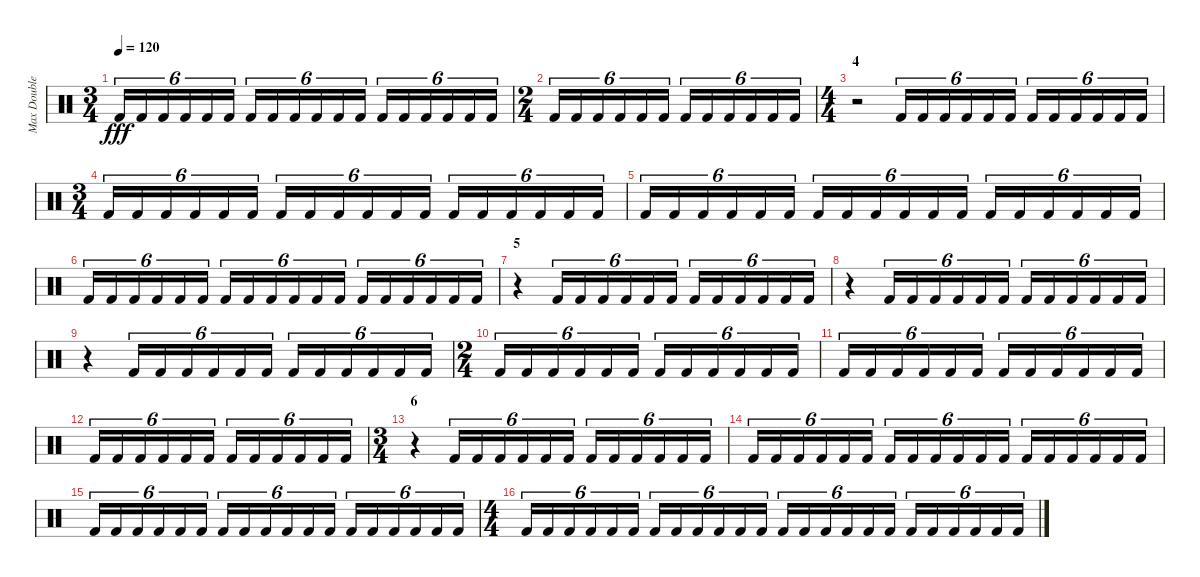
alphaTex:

\track ("Max Double Pedal" "Max Double") {instrument percussion}
\staff {score}
\articulation defaults
\ts (3 4)
\tempo 120
\clef neutral
\ks c "Kick (hit) 2".16{tu (6 4) dy fff} "Kick (hit) 2".16{tu (6 4)} "Kick (hit) 2".16{tu (6 4)} "Kick (hit) 2".16{tu (6 4)} "Kick (hit) 2".16{tu (6 4)} "Kick (hit) 2".16{tu (6 4)} "Kick (hit) 2".16{tu (6 4)} "Kick (hit) 2".16{tu (6 4)} "Kick (hit) 2".16{tu (6 4)} "Kick (hit) 2".16{tu (6 4)} "Kick (hit) 2".16{tu (6 4)} "Kick (hit) 2".16{tu (6 4)} "Kick (hit) 2".16{tu (6 4)} "Kick (hit) 2".16{tu (6 4)} "Kick (hit) 2".16{tu (6 4)} "Kick (hit) 2".16{tu (6 4)} "Kick (hit) 2".16{tu (6 4)} "Kick (hit) 2".16{tu (6 4)}
|
\ts (2 4)
"Kick (hit) 2".16{tu (6 4)} "Kick (hit) 2".16{tu (6 4)} "Kick (hit) 2".16{tu (6 4)} "Kick (hit) 2".16{tu (6 4)} "Kick (hit) 2".16{tu (6 4)} "Kick (hit) 2".16{tu (6 4)} "Kick (hit) 2".16{tu (6 4)} "Kick (hit) 2".16{tu (6 4)} "Kick (hit) 2".16{tu (6 4)} "Kick (hit) 2".16{tu (6 4)} "Kick (hit) 2".16{tu (6 4)} "Kick (hit) 2".16{tu (6 4)} |
\ts (4 4)
\section ("" "4")
r.2 "Kick (hit) 2".16{tu (6 4)} "Kick (hit) 2".16{tu (6 4)} "Kick (hit) 2".16{tu (6 4)} "Kick (hit) 2".16{tu (6 4)} "Kick (hit) 2".16{tu (6 4)} "Kick (hit) 2".16{tu (6 4)} "Kick (hit) 2".16{tu (6 4)} "Kick (hit) 2".16{tu (6 4)} "Kick (hit) 2".16{tu (6 4)} "Kick (hit) 2".16{tu (6 4)} "Kick (hit) 2".16{tu (6 4)} "Kick (hit) 2".16{tu (6 4)} |
\ts (3 4)
"Kick (hit) 2".16{tu (6 4)} "Kick (hit) 2".16{tu (6 4)} "Kick (hit) 2".16{tu (6 4)} "Kick (hit) 2".16{tu (6 4)} "Kick (hit) 2".16{tu (6 4)} "Kick (hit) 2".16{tu (6 4)} "Kick (hit) 2".16{tu (6 4)} "Kick (hit) 2".16{tu (6 4)} "Kick (hit) 2".16{tu (6 4)} "Kick (hit) 2".16{tu (6 4)} "Kick (hit) 2".16{tu (6 4)} "Kick (hit) 2".16{tu (6 4)} "Kick (hit) 2".16{tu (6 4)} "Kick (hit) 2".16{tu (6 4)} "Kick (hit) 2".16{tu (6 4)} "Kick (hit) 2".16{tu (6 4)} "Kick (hit) 2".16{tu (6 4)} "Kick (hit) 2".16{tu (6 4)} |
"Kick (hit) 2".16{tu (6 4)} "Kick (hit) 2".16{tu (6 4)} "Kick (hit) 2".16{tu (6 4)} "Kick (hit) 2".16{tu (6 4)} "Kick (hit) 2".16{tu (6 4)} "Kick (hit) 2".16{tu (6 4)} "Kick (hit) 2".16{tu (6 4)} "Kick (hit) 2".16{tu (6 4)} "Kick (hit) 2".16{tu (6 4)} "Kick (hit) 2".16{tu (6 4)} "Kick (hit) 2".16{tu (6 4)} "Kick (hit) 2".16{tu (6 4)} "Kick (hit) 2".16{tu (6 4)} "Kick (hit) 2".16{tu (6 4)} "Kick (hit) 2".16{tu (6 4)} "Kick (hit) 2".16{tu (6 4)} "Kick (hit) 2".16{tu (6 4)} "Kick (hit) 2".16{tu (6 4)} |
"Kick (hit) 2".16{tu (6 4)} "Kick (hit) 2".16{tu (6 4)} "Kick (hit) 2".16{tu (6 4)} "Kick (hit) 2".16{tu (6 4)} "Kick (hit) 2".16{tu (6 4)} "Kick (hit) 2".16{tu (6 4)} "Kick (hit) 2".16{tu (6 4)} "Kick (hit) 2".16{tu (6 4)} "Kick (hit) 2".16{tu (6 4)} "Kick (hit) 2".16{tu (6 4)} "Kick (hit) 2".16{tu (6 4)} "Kick (hit) 2".16{tu (6 4)} "Kick (hit) 2".16{tu (6 4)} "Kick (hit) 2".16{tu (6 4)} "Kick (hit) 2".16{tu (6 4)} "Kick (hit) 2".16{tu (6 4)} "Kick (hit) 2".16{tu (6 4)} "Kick (hit) 2".16{tu (6 4)} |
\section ("" "5")
r.4 "Kick (hit) 2".16{tu (6 4)} "Kick (hit) 2".16{tu (6 4)} "Kick (hit) 2".16{tu (6 4)} "Kick (hit) 2".16{tu (6 4)} "Kick (hit) 2".16{tu (6 4)} "Kick (hit) 2".16{tu (6 4)} "Kick (hit) 2".16{tu (6 4)} "Kick (hit) 2".16{tu (6 4)} "Kick (hit) 2".16{tu (6 4)} "Kick (hit) 2".16{tu (6 4)} "Kick (hit) 2".16{tu (6 4)} "Kick (hit) 2".16{tu (6 4)} |
r.4 "Kick (hit) 2".16{tu (6 4)} "Kick (hit) 2".16{tu (6 4)} "Kick (hit) 2".16{tu (6 4)} "Kick (hit) 2".16{tu (6 4)} "Kick (hit) 2".16{tu (6 4)} "Kick (hit) 2".16{tu (6 4)} "Kick (hit) 2".16{tu (6 4)} "Kick (hit) 2".16{tu (6 4)} "Kick (hit) 2".16{tu (6 4)} "Kick (hit) 2".16{tu (6 4)} "Kick (hit) 2".16{tu (6 4)} "Kick (hit) 2".16{tu (6 4)} |
r.4 "Kick (hit) 2".16{tu (6 4)} "Kick (hit) 2".16{tu (6 4)} "Kick (hit) 2".16{tu (6 4)} "Kick (hit) 2".16{tu (6 4)} "Kick (hit) 2".16{tu (6 4)} "Kick (hit) 2".16{tu (6 4)} "Kick (hit) 2".16{tu (6 4)} "Kick (hit) 2".16{tu (6 4)} "Kick (hit) 2".16{tu (6 4)} "Kick (hit) 2".16{tu (6 4)} "Kick (hit) 2".16{tu (6 4)} "Kick (hit) 2".16{tu (6 4)} |
\ts (2 4)
"Kick (hit) 2".16{tu (6 4)} "Kick (hit) 2".16{tu (6 4)} "Kick (hit) 2".16{tu (6 4)} "Kick (hit) 2".16{tu (6 4)} "Kick (hit) 2".16{tu (6 4)} "Kick (hit) 2".16{tu (6 4)} "Kick (hit) 2".16{tu (6 4)} "Kick (hit) 2".16{tu (6 4)} "Kick (hit) 2".16{tu (6 4)} "Kick (hit) 2".16{tu (6 4)} "Kick (hit) 2".16{tu (6 4)} "Kick (hit) 2".16{tu (6 4)} |
"Kick (hit) 2".16{tu (6 4)} "Kick (hit) 2".16{tu (6 4)} "Kick (hit) 2".16{tu (6 4)} "Kick (hit) 2".16{tu (6 4)} "Kick (hit) 2".16{tu (6 4)} "Kick (hit) 2".16{tu (6 4)} "Kick (hit) 2".16{tu (6 4)} "Kick (hit) 2".16{tu (6 4)} "Kick (hit) 2".16{tu (6 4)} "Kick (hit) 2".16{tu (6 4)} "Kick (hit) 2".16{tu (6 4)} "Kick (hit) 2".16{tu (6 4)} |
"Kick (hit) 2".16{tu (6 4)} "Kick (hit) 2".16{tu (6 4)} "Kick (hit) 2".16{tu (6 4)} "Kick (hit) 2".16{tu (6 4)} "Kick (hit) 2".16{tu (6 4)} "Kick (hit) 2".16{tu (6 4)} "Kick (hit) 2".16{tu (6 4)} "Kick (hit) 2".16{tu (6 4)} "Kick (hit) 2".16{tu (6 4)} "Kick (hit) 2".16{tu (6 4)} "Kick (hit) 2".16{tu (6 4)} "Kick (hit) 2".16{tu (6 4)} |
\ts (3 4)
\section ("" "6")
r.4 "Kick (hit) 2".16{tu (6 4)} "Kick (hit) 2".16{tu (6 4)} "Kick (hit) 2".16{tu (6 4)} "Kick (hit) 2".16{tu (6 4)} "Kick (hit) 2".16{tu (6 4)} "Kick (hit) 2".16{tu (6 4)} "Kick (hit) 2".16{tu (6 4)} "Kick (hit) 2".16{tu (6 4)} "Kick (hit) 2".16{tu (6 4)} "Kick (hit) 2".16{tu (6 4)} "Kick (hit) 2".16{tu (6 4)} "Kick (hit) 2".16{tu (6 4)} |
"Kick (hit) 2".16{tu (6 4)} "Kick (hit) 2".16{tu (6 4)} "Kick (hit) 2".16{tu (6 4)} "Kick (hit) 2".16{tu (6 4)} "Kick (hit) 2".16{tu (6 4)} "Kick (hit) 2".16{tu (6 4)} "Kick (hit) 2".16{tu (6 4)} "Kick (hit) 2".16{tu (6 4)} "Kick (hit) 2".16{tu (6 4)} "Kick (hit) 2".16{tu (6 4)} "Kick (hit) 2".16{tu (6 4)} "Kick (hit) 2".16{tu (6 4)} "Kick (hit) 2".16{tu (6 4)} "Kick (hit) 2".16{tu (6 4)} "Kick (hit) 2".16{tu (6 4)} "Kick (hit) 2".16{tu (6 4)} "Kick (hit) 2".16{tu (6 4)} "Kick (hit) 2".16{tu (6 4)} |
"Kick (hit) 2".16{tu (6 4)} "Kick (hit) 2".16{tu (6 4)} "Kick (hit) 2".16{tu (6 4)} "Kick (hit) 2".16{tu (6 4)} "Kick (hit) 2".16{tu (6 4)} "Kick (hit) 2".16{tu (6 4)} "Kick (hit) 2".16{tu (6 4)} "Kick (hit) 2".16{tu (6 4)} "Kick (hit) 2".16{tu (6 4)} "Kick (hit) 2".16{tu (6 4)} "Kick (hit) 2".16{tu (6 4)} "Kick (hit) 2".16{tu (6 4)} "Kick (hit) 2".16{tu (6 4)} "Kick (hit) 2".16{tu (6 4)} "Kick (hit) 2".16{tu (6 4)} "Kick (hit) 2".16{tu (6 4)} "Kick (hit) 2".16{tu (6 4)} "Kick (hit) 2".16{tu (6 4)} |
\ts (4 4)
"Kick (hit) 2".16{tu (6 4)} "Kick (hit) 2".16{tu (6 4)} "Kick (hit) 2".16{tu (6 4)} "Kick (hit) 2".16{tu (6 4)} "Kick (hit) 2".16{tu (6 4)} "Kick (hit) 2".16{tu (6 4)} "Kick (hit) 2".16{tu (6 4)} "Kick (hit) 2".16{tu (6 4)} "Kick (hit) 2".16{tu (6 4)} "Kick (hit) 2".16{tu (6 4)} "Kick (hit) 2".16{tu (6 4)} "Kick (hit) 2".16{tu (6 4)} "Kick (hit) 2".16{tu (6 4)} "Kick (hit) 2".16{tu (6 4)} "Kick (hit) 2".16{tu (6 4)} "Kick (hit) 2".16{tu (6 4)} "Kick (hit) 2".16{tu (6 4)} "Kick (hit) 2".16{tu (6 4)} "Kick (hit) 2".16{tu (6 4)} "Kick (hit) 2".16{tu (6 4)} "Kick (hit) 2".16{tu (6 4)} "Kick (hit) 2".16{tu (6 4)} "Kick (hit) 2".16{tu (6 4)} "Kick (hit) 2".16{tu (6 4)}
